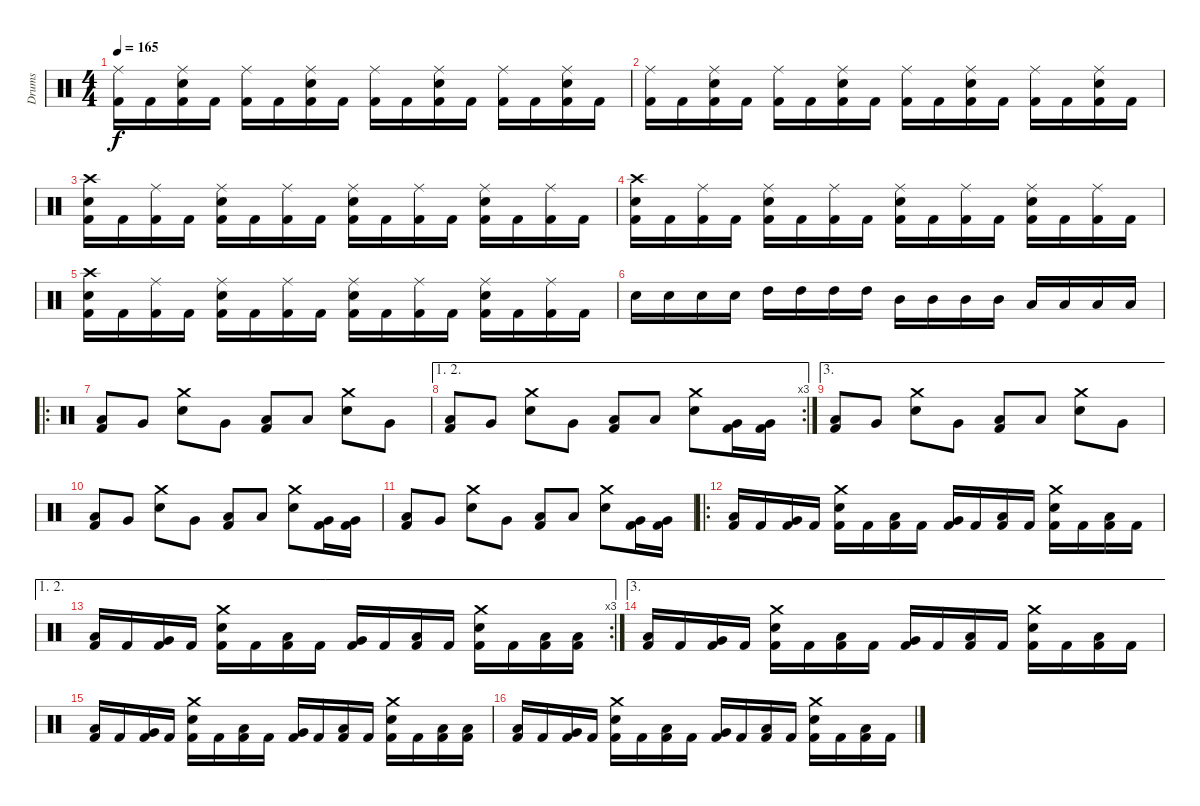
\track ("Drums" "Drums") {instrument percussion}
\staff {score}
\articulation defaults
\ts (4 4)
\tempo 165
\clef neutral
\ks c
("Ride (middle)" "Kick (hit) 2").16{dy f} "Kick (hit) 2".16 ("Ride (middle)" "Electric Snare (hit)" "Kick (hit) 2").16 "Kick (hit) 2".16 ("Ride (middle)" "Kick (hit) 2").16 "Kick (hit) 2".16 ("Ride (middle)" "Electric Snare (hit)" "Kick (hit) 2").16 "Kick (hit) 2".16 ("Ride (middle)" "Kick (hit) 2").16 "Kick (hit) 2".16 ("Ride (middle)" "Electric Snare (hit)" "Kick (hit) 2").16 "Kick (hit) 2".16 ("Ride (middle)" "Kick (hit) 2").16 "Kick (hit) 2".16 ("Ride (middle)" "Electric Snare (hit)" "Kick (hit) 2").16 "Kick (hit) 2".16 |
("Ride (middle)" "Kick (hit) 2").16 "Kick (hit) 2".16 ("Ride (middle)" "Electric Snare (hit)" "Kick (hit) 2").16 "Kick (hit) 2".16 ("Ride (middle)" "Kick (hit) 2").16 "Kick (hit) 2".16 ("Ride (middle)" "Electric Snare (hit)" "Kick (hit) 2").16 "Kick (hit) 2".16 ("Ride (middle)" "Kick (hit) 2").16 "Kick (hit) 2".16 ("Ride (middle)" "Electric Snare (hit)" "Kick (hit) 2").16 "Kick (hit) 2".16 ("Ride (middle)" "Kick (hit) 2").16 "Kick (hit) 2".16 ("Ride (middle)" "Electric Snare (hit)" "Kick (hit) 2").16 "Kick (hit) 2".16 |
("Crash high (hit)" "Electric Snare (hit)" "Kick (hit) 2").16 "Kick (hit) 2".16 ("Ride (middle)" "Kick (hit) 2").16 "Kick (hit) 2".16 ("Ride (middle)" "Electric Snare (hit)" "Kick (hit) 2").16 "Kick (hit) 2".16 ("Ride (middle)" "Kick (hit) 2").16 "Kick (hit) 2".16 ("Ride (middle)" "Electric Snare (hit)" "Kick (hit) 2").16 "Kick (hit) 2".16 ("Ride (middle)" "Kick (hit) 2").16 "Kick (hit) 2".16 ("Ride (middle)" "Electric Snare (hit)" "Kick (hit) 2").16 "Kick (hit) 2".16 ("Ride (middle)" "Kick (hit) 2").16 "Kick (hit) 2".16 |
("Crash high (hit)" "Electric Snare (hit)" "Kick (hit) 2").16 "Kick (hit) 2".16 ("Ride (middle)" "Kick (hit) 2").16 "Kick (hit) 2".16 ("Ride (middle)" "Electric Snare (hit)" "Kick (hit) 2").16 "Kick (hit) 2".16 ("Ride (middle)" "Kick (hit) 2").16 "Kick (hit) 2".16 ("Ride (middle)" "Electric Snare (hit)" "Kick (hit) 2").16 "Kick (hit) 2".16 ("Ride (middle)" "Kick (hit) 2").16 "Kick (hit) 2".16 ("Ride (middle)" "Electric Snare (hit)" "Kick (hit) 2").16 "Kick (hit) 2".16 ("Ride (middle)" "Kick (hit) 2").16 "Kick (hit) 2".16 |
("Crash high (hit)" "Electric Snare (hit)" "Kick (hit) 2").16 "Kick (hit) 2".16 ("Ride (middle)" "Kick (hit) 2").16 "Kick (hit) 2".16 ("Ride (middle)" "Electric Snare (hit)" "Kick (hit) 2").16 "Kick (hit) 2".16 ("Ride (middle)" "Kick (hit) 2").16 "Kick (hit) 2".16 ("Ride (middle)" "Electric Snare (hit)" "Kick (hit) 2").16 "Kick (hit) 2".16 ("Ride (middle)" "Kick (hit) 2").16 "Kick (hit) 2".16 ("Ride (middle)" "Electric Snare (hit)" "Kick (hit) 2").16 "Kick (hit) 2".16 ("Ride (middle)" "Kick (hit) 2").16 "Kick (hit) 2".16 |
"Electric Snare (hit)".16 "Electric Snare (hit)".16 "Electric Snare (hit)".16 "Electric Snare (hit)".16 "High Tom (hit)".16 "High Tom (hit)".16 "High Tom (hit)".16 "High Tom (hit)".16 "Mid Tom (hit)".16 "Mid Tom (hit)".16 "Mid Tom (hit)".16 "Mid Tom (hit)".16 "Low Tom (hit)".16 "Low Tom (hit)".16 "Low Tom (hit)".16 "Low Tom (hit)".16 |
\ro
("Low Tom (hit)" "Kick (hit) 2").8 "Very Low Tom (hit)".8 ("Crash medium (hit)" "Electric Snare (hit)").8 "Very Low Tom (hit)".8 ("Low Tom (hit)" "Kick (hit) 2").8 "Low Tom (hit)".8 ("Crash medium (hit)" "Electric Snare (hit)").8 "Very Low Tom (hit)".8 |
\ae (1 2)
\rc 3
("Low Tom (hit)" "Kick (hit) 2").8 "Very Low Tom (hit)".8 ("Crash medium (hit)" "Electric Snare (hit)").8 "Very Low Tom (hit)".8 ("Low Tom (hit)" "Kick (hit) 2").8 "Low Tom (hit)".8 ("Crash medium (hit)" "Electric Snare (hit)").8 ("Very Low Tom (hit)" "Kick (hit) 2").16 ("Very Low Tom (hit)" "Kick (hit) 2").16 |
\ae 3
("Low Tom (hit)" "Kick (hit) 2").8 "Very Low Tom (hit)".8 ("Crash medium (hit)" "Electric Snare (hit)").8 "Very Low Tom (hit)".8 ("Low Tom (hit)" "Kick (hit) 2").8 "Low Tom (hit)".8 ("Crash medium (hit)" "Electric Snare (hit)").8 "Very Low Tom (hit)".8 |
("Low Tom (hit)" "Kick (hit) 2").8 "Very Low Tom (hit)".8 ("Crash medium (hit)" "Electric Snare (hit)").8 "Very Low Tom (hit)".8 ("Low Tom (hit)" "Kick (hit) 2").8 "Low Tom (hit)".8 ("Crash medium (hit)" "Electric Snare (hit)").8 ("Very Low Tom (hit)" "Kick (hit) 2").16 ("Very Low Tom (hit)" "Kick (hit) 2").16 |
("Low Tom (hit)" "Kick (hit) 2").8 "Very Low Tom (hit)".8 ("Crash medium (hit)" "Electric Snare (hit)").8 "Very Low Tom (hit)".8 ("Low Tom (hit)" "Kick (hit) 2").8 "Low Tom (hit)".8 ("Crash medium (hit)" "Electric Snare (hit)").8 ("Very Low Tom (hit)" "Kick (hit) 2").16 ("Very Low Tom (hit)" "Kick (hit) 2").16 |
\ro
("Low Tom (hit)" "Kick (hit) 2").16 "Kick (hit) 2".16 ("Very Low Tom (hit)" "Kick (hit) 2").16 "Kick (hit) 2".16 ("Crash medium (hit)" "Electric Snare (hit)" "Kick (hit) 2").16 "Kick (hit) 2".16 ("Low Tom (hit)" "Kick (hit) 2").16 "Kick (hit) 2".16 ("Very Low Tom (hit)" "Kick (hit) 2").16 "Kick (hit) 2".16 ("Low Tom (hit)" "Kick (hit) 2").16 "Kick (hit) 2".16 ("Crash medium (hit)" "Electric Snare (hit)" "Kick (hit) 2").16 "Kick (hit) 2".16 ("Low Tom (hit)" "Kick (hit) 2").16 "Kick (hit) 2".16 |
\ae (1 2)
\rc 3
("Low Tom (hit)" "Kick (hit) 2").16 "Kick (hit) 2".16 ("Very Low Tom (hit)" "Kick (hit) 2").16 "Kick (hit) 2".16 ("Crash medium (hit)" "Electric Snare (hit)" "Kick (hit) 2").16 "Kick (hit) 2".16 ("Low Tom (hit)" "Kick (hit) 2").16 "Kick (hit) 2".16 ("Very Low Tom (hit)" "Kick (hit) 2").16 "Kick (hit) 2".16 ("Low Tom (hit)" "Kick (hit) 2").16 "Kick (hit) 2".16 ("Crash medium (hit)" "Electric Snare (hit)" "Kick (hit) 2").16 "Kick (hit) 2".16 ("Low Tom (hit)" "Kick (hit) 2").16 ("Low Tom (hit)" "Kick (hit) 2").16 |
\ae 3
("Low Tom (hit)" "Kick (hit) 2").16 "Kick (hit) 2".16 ("Very Low Tom (hit)" "Kick (hit) 2").16 "Kick (hit) 2".16 ("Crash medium (hit)" "Electric Snare (hit)" "Kick (hit) 2").16 "Kick (hit) 2".16 ("Low Tom (hit)" "Kick (hit) 2").16 "Kick (hit) 2".16 ("Very Low Tom (hit)" "Kick (hit) 2").16 "Kick (hit) 2".16 ("Low Tom (hit)" "Kick (hit) 2").16 "Kick (hit) 2".16 ("Crash medium (hit)" "Electric Snare (hit)" "Kick (hit) 2").16 "Kick (hit) 2".16 ("Low Tom (hit)" "Kick (hit) 2").16 "Kick (hit) 2".16 |
("Low Tom (hit)" "Kick (hit) 2").16 "Kick (hit) 2".16 ("Very Low Tom (hit)" "Kick (hit) 2").16 "Kick (hit) 2".16 ("Crash medium (hit)" "Electric Snare (hit)" "Kick (hit) 2").16 "Kick (hit) 2".16 ("Low Tom (hit)" "Kick (hit) 2").16 "Kick (hit) 2".16 ("Very Low Tom (hit)" "Kick (hit) 2").16 "Kick (hit) 2".16 ("Low Tom (hit)" "Kick (hit) 2").16 "Kick (hit) 2".16 ("Crash medium (hit)" "Electric Snare (hit)" "Kick (hit) 2").16 "Kick (hit) 2".16 ("Low Tom (hit)" "Kick (hit) 2").16 ("Low Tom (hit)" "Kick (hit) 2").16 |
("Low Tom (hit)" "Kick (hit) 2").16 "Kick (hit) 2".16 ("Very Low Tom (hit)" "Kick (hit) 2").16 "Kick (hit) 2".16 ("Crash medium (hit)" "Electric Snare (hit)" "Kick (hit) 2").16 "Kick (hit) 2".16 ("Low Tom (hit)" "Kick (hit) 2").16 "Kick (hit) 2".16 ("Very Low Tom (hit)" "Kick (hit) 2").16 "Kick (hit) 2".16 ("Low Tom (hit)" "Kick (hit) 2").16 "Kick (hit) 2".16 ("Crash medium (hit)" "Electric Snare (hit)" "Kick (hit) 2").16 "Kick (hit) 2".16 ("Low Tom (hit)" "Kick (hit) 2").16 "Kick (hit) 2".16
